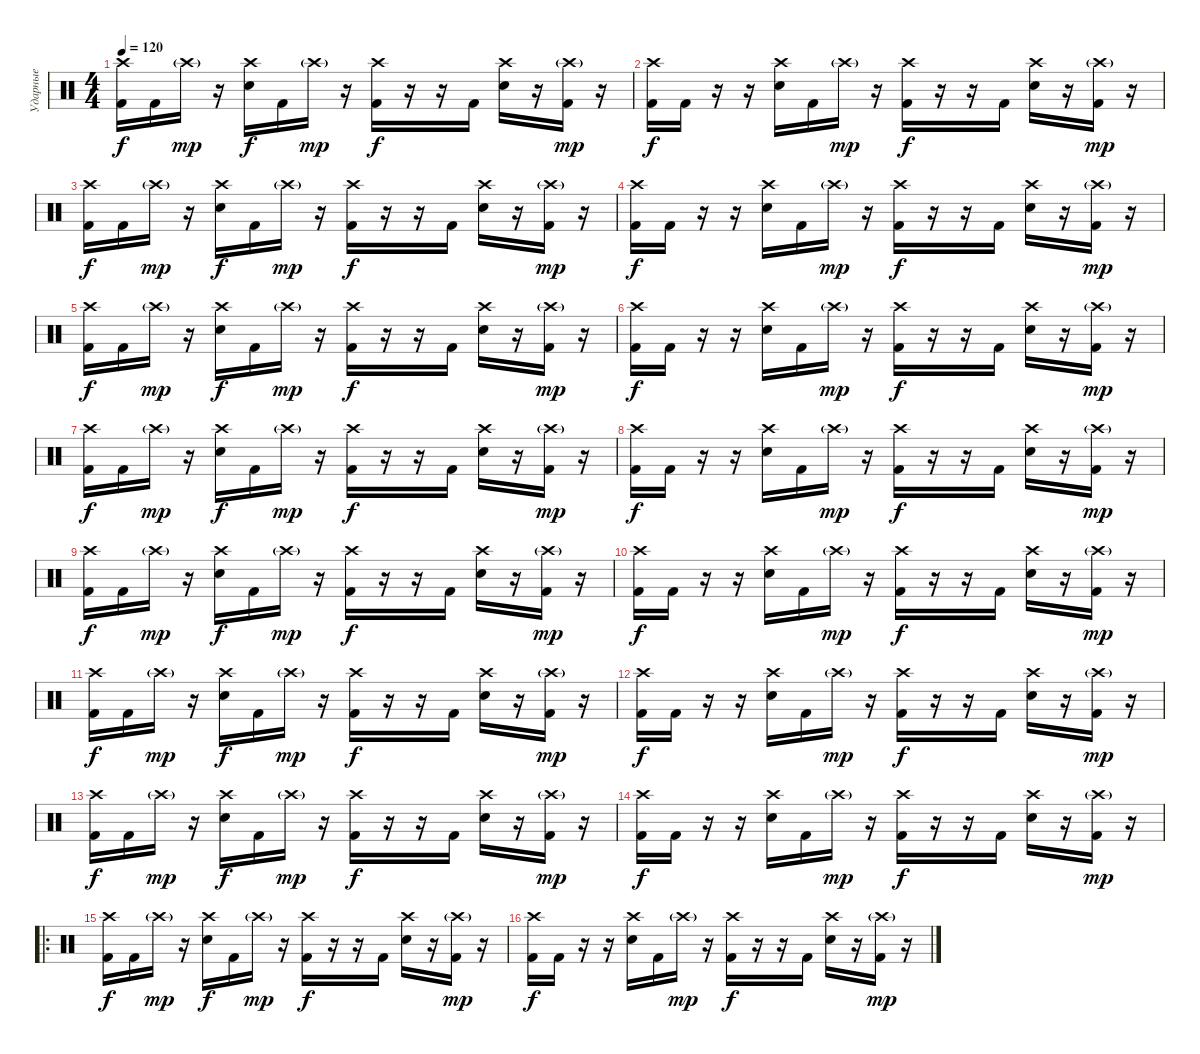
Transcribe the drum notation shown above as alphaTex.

\track ("Ударные" "Ударные") {instrument percussion}
\staff {score}
\articulation defaults
\ts (4 4)
\tempo 120
\clef neutral
\ks c
("Crash high (hit)" "Kick (hit) 2").16{dy f} "Kick (hit) 2".16 "Crash high (hit)"{g}.16{dy mp} r.16 ("Crash high (hit)" "Snare (hit) 2").16{dy f} "Kick (hit) 2".16 "Crash high (hit)"{g}.16{dy mp} r.16 ("Crash high (hit)" "Kick (hit) 2").16{dy f} r.16 r.16 "Kick (hit) 2".16 ("Crash high (hit)" "Snare (hit) 2").16 r.16 ("Crash high (hit)"{g} "Kick (hit) 2").16{dy mp} r.16 |
("Crash high (hit)" "Kick (hit) 2").16{dy f} "Kick (hit) 2".16 r.16 r.16 ("Crash high (hit)" "Snare (hit) 2").16 "Kick (hit) 2".16 "Crash high (hit)"{g}.16{dy mp} r.16 ("Crash high (hit)" "Kick (hit) 2").16{dy f} r.16 r.16 "Kick (hit) 2".16 ("Crash high (hit)" "Snare (hit) 2").16 r.16 ("Crash high (hit)"{g} "Kick (hit) 2").16{dy mp} r.16 |
("Crash high (hit)" "Kick (hit) 2").16{dy f} "Kick (hit) 2".16 "Crash high (hit)"{g}.16{dy mp} r.16 ("Crash high (hit)" "Snare (hit) 2").16{dy f} "Kick (hit) 2".16 "Crash high (hit)"{g}.16{dy mp} r.16 ("Crash high (hit)" "Kick (hit) 2").16{dy f} r.16 r.16 "Kick (hit) 2".16 ("Crash high (hit)" "Snare (hit) 2").16 r.16 ("Crash high (hit)"{g} "Kick (hit) 2").16{dy mp} r.16 |
("Crash high (hit)" "Kick (hit) 2").16{dy f} "Kick (hit) 2".16 r.16 r.16 ("Crash high (hit)" "Snare (hit) 2").16 "Kick (hit) 2".16 "Crash high (hit)"{g}.16{dy mp} r.16 ("Crash high (hit)" "Kick (hit) 2").16{dy f} r.16 r.16 "Kick (hit) 2".16 ("Crash high (hit)" "Snare (hit) 2").16 r.16 ("Crash high (hit)"{g} "Kick (hit) 2").16{dy mp} r.16 |
("Crash high (hit)" "Kick (hit) 2").16{dy f} "Kick (hit) 2".16 "Crash high (hit)"{g}.16{dy mp} r.16 ("Crash high (hit)" "Snare (hit) 2").16{dy f} "Kick (hit) 2".16 "Crash high (hit)"{g}.16{dy mp} r.16 ("Crash high (hit)" "Kick (hit) 2").16{dy f} r.16 r.16 "Kick (hit) 2".16 ("Crash high (hit)" "Snare (hit) 2").16 r.16 ("Crash high (hit)"{g} "Kick (hit) 2").16{dy mp} r.16 |
("Crash high (hit)" "Kick (hit) 2").16{dy f} "Kick (hit) 2".16 r.16 r.16 ("Crash high (hit)" "Snare (hit) 2").16 "Kick (hit) 2".16 "Crash high (hit)"{g}.16{dy mp} r.16 ("Crash high (hit)" "Kick (hit) 2").16{dy f} r.16 r.16 "Kick (hit) 2".16 ("Crash high (hit)" "Snare (hit) 2").16 r.16 ("Crash high (hit)"{g} "Kick (hit) 2").16{dy mp} r.16 |
("Crash high (hit)" "Kick (hit) 2").16{dy f} "Kick (hit) 2".16 "Crash high (hit)"{g}.16{dy mp} r.16 ("Crash high (hit)" "Snare (hit) 2").16{dy f} "Kick (hit) 2".16 "Crash high (hit)"{g}.16{dy mp} r.16 ("Crash high (hit)" "Kick (hit) 2").16{dy f} r.16 r.16 "Kick (hit) 2".16 ("Crash high (hit)" "Snare (hit) 2").16 r.16 ("Crash high (hit)"{g} "Kick (hit) 2").16{dy mp} r.16 |
("Crash high (hit)" "Kick (hit) 2").16{dy f} "Kick (hit) 2".16 r.16 r.16 ("Crash high (hit)" "Snare (hit) 2").16 "Kick (hit) 2".16 "Crash high (hit)"{g}.16{dy mp} r.16 ("Crash high (hit)" "Kick (hit) 2").16{dy f} r.16 r.16 "Kick (hit) 2".16 ("Crash high (hit)" "Snare (hit) 2").16 r.16 ("Crash high (hit)"{g} "Kick (hit) 2").16{dy mp} r.16 |
("Crash high (hit)" "Kick (hit) 2").16{dy f} "Kick (hit) 2".16 "Crash high (hit)"{g}.16{dy mp} r.16 ("Crash high (hit)" "Snare (hit) 2").16{dy f} "Kick (hit) 2".16 "Crash high (hit)"{g}.16{dy mp} r.16 ("Crash high (hit)" "Kick (hit) 2").16{dy f} r.16 r.16 "Kick (hit) 2".16 ("Crash high (hit)" "Snare (hit) 2").16 r.16 ("Crash high (hit)"{g} "Kick (hit) 2").16{dy mp} r.16 |
("Crash high (hit)" "Kick (hit) 2").16{dy f} "Kick (hit) 2".16 r.16 r.16 ("Crash high (hit)" "Snare (hit) 2").16 "Kick (hit) 2".16 "Crash high (hit)"{g}.16{dy mp} r.16 ("Crash high (hit)" "Kick (hit) 2").16{dy f} r.16 r.16 "Kick (hit) 2".16 ("Crash high (hit)" "Snare (hit) 2").16 r.16 ("Crash high (hit)"{g} "Kick (hit) 2").16{dy mp} r.16 |
("Crash high (hit)" "Kick (hit) 2").16{dy f} "Kick (hit) 2".16 "Crash high (hit)"{g}.16{dy mp} r.16 ("Crash high (hit)" "Snare (hit) 2").16{dy f} "Kick (hit) 2".16 "Crash high (hit)"{g}.16{dy mp} r.16 ("Crash high (hit)" "Kick (hit) 2").16{dy f} r.16 r.16 "Kick (hit) 2".16 ("Crash high (hit)" "Snare (hit) 2").16 r.16 ("Crash high (hit)"{g} "Kick (hit) 2").16{dy mp} r.16 |
("Crash high (hit)" "Kick (hit) 2").16{dy f} "Kick (hit) 2".16 r.16 r.16 ("Crash high (hit)" "Snare (hit) 2").16 "Kick (hit) 2".16 "Crash high (hit)"{g}.16{dy mp} r.16 ("Crash high (hit)" "Kick (hit) 2").16{dy f} r.16 r.16 "Kick (hit) 2".16 ("Crash high (hit)" "Snare (hit) 2").16 r.16 ("Crash high (hit)"{g} "Kick (hit) 2").16{dy mp} r.16 |
("Crash high (hit)" "Kick (hit) 2").16{dy f} "Kick (hit) 2".16 "Crash high (hit)"{g}.16{dy mp} r.16 ("Crash high (hit)" "Snare (hit) 2").16{dy f} "Kick (hit) 2".16 "Crash high (hit)"{g}.16{dy mp} r.16 ("Crash high (hit)" "Kick (hit) 2").16{dy f} r.16 r.16 "Kick (hit) 2".16 ("Crash high (hit)" "Snare (hit) 2").16 r.16 ("Crash high (hit)"{g} "Kick (hit) 2").16{dy mp} r.16 |
("Crash high (hit)" "Kick (hit) 2").16{dy f} "Kick (hit) 2".16 r.16 r.16 ("Crash high (hit)" "Snare (hit) 2").16 "Kick (hit) 2".16 "Crash high (hit)"{g}.16{dy mp} r.16 ("Crash high (hit)" "Kick (hit) 2").16{dy f} r.16 r.16 "Kick (hit) 2".16 ("Crash high (hit)" "Snare (hit) 2").16 r.16 ("Crash high (hit)"{g} "Kick (hit) 2").16{dy mp} r.16 |
\ro
("Crash high (hit)" "Kick (hit) 2").16{dy f} "Kick (hit) 2".16 "Crash high (hit)"{g}.16{dy mp} r.16 ("Crash high (hit)" "Snare (hit) 2").16{dy f} "Kick (hit) 2".16 "Crash high (hit)"{g}.16{dy mp} r.16 ("Crash high (hit)" "Kick (hit) 2").16{dy f} r.16 r.16 "Kick (hit) 2".16 ("Crash high (hit)" "Snare (hit) 2").16 r.16 ("Crash high (hit)"{g} "Kick (hit) 2").16{dy mp} r.16 |
("Crash high (hit)" "Kick (hit) 2").16{dy f} "Kick (hit) 2".16 r.16 r.16 ("Crash high (hit)" "Snare (hit) 2").16 "Kick (hit) 2".16 "Crash high (hit)"{g}.16{dy mp} r.16 ("Crash high (hit)" "Kick (hit) 2").16{dy f} r.16 r.16 "Kick (hit) 2".16 ("Crash high (hit)" "Snare (hit) 2").16 r.16 ("Crash high (hit)"{g} "Kick (hit) 2").16{dy mp} r.16
